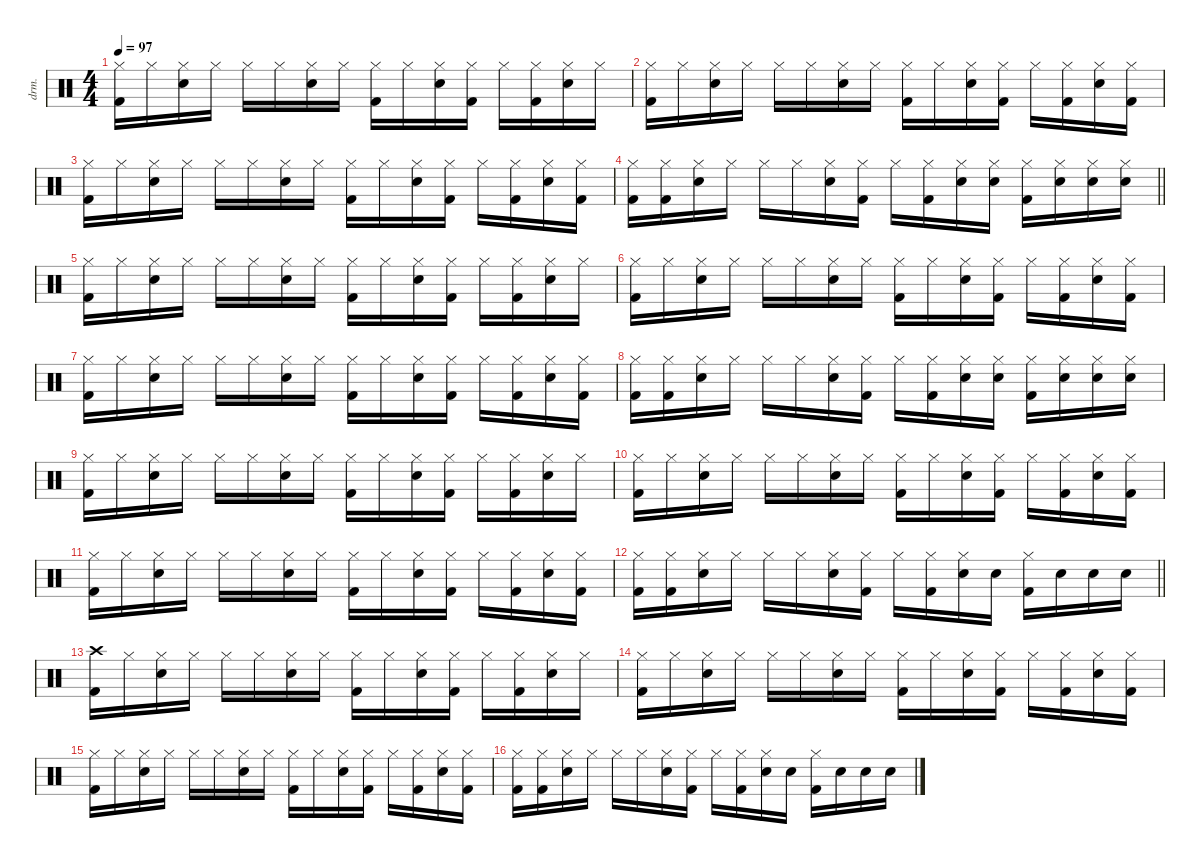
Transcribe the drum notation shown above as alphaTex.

\defaultSystemsLayout 4
\hideDynamics
\bracketExtendMode nobrackets
\track ("Drumkit" "drm.") {instrument percussion}
\staff {score}
\articulation defaults
\ts (4 4)
\tempo 97
\clef neutral
\ks c
("Hi-Hat (closed)" "Kick (hit) 2").16{dy mf beam Down} "Hi-Hat (closed)".16{beam Down} ("Hi-Hat (closed)" "Snare (hit) 2").16{beam Down} "Hi-Hat (closed)".16{beam Down} "Hi-Hat (closed)".16{beam Down} "Hi-Hat (closed)".16{beam Down} ("Hi-Hat (closed)" "Snare (hit) 2").16{beam Down} "Hi-Hat (closed)".16{beam Down} ("Hi-Hat (closed)" "Kick (hit) 2").16{beam Down} "Hi-Hat (closed)".16{beam Down} ("Hi-Hat (closed)" "Snare (hit) 2").16{beam Down} ("Hi-Hat (closed)" "Kick (hit) 2").16{beam Down} "Hi-Hat (closed)".16{beam Down} ("Hi-Hat (closed)" "Kick (hit) 2").16{beam Down} ("Hi-Hat (closed)" "Snare (hit) 2").16{beam Down} "Hi-Hat (closed)".16{beam Down} |
("Hi-Hat (closed)" "Kick (hit) 2").16{beam Down} "Hi-Hat (closed)".16{beam Down} ("Hi-Hat (closed)" "Snare (hit) 2").16{beam Down} "Hi-Hat (closed)".16{beam Down} "Hi-Hat (closed)".16{beam Down} "Hi-Hat (closed)".16{beam Down} ("Hi-Hat (closed)" "Snare (hit) 2").16{beam Down} "Hi-Hat (closed)".16{beam Down} ("Hi-Hat (closed)" "Kick (hit) 2").16{beam Down} "Hi-Hat (closed)".16{beam Down} ("Hi-Hat (closed)" "Snare (hit) 2").16{beam Down} ("Hi-Hat (closed)" "Kick (hit) 2").16{beam Down} "Hi-Hat (closed)".16{beam Down} ("Hi-Hat (closed)" "Kick (hit) 2").16{beam Down} ("Hi-Hat (closed)" "Snare (hit) 2").16{beam Down} ("Hi-Hat (closed)" "Kick (hit) 2").16{beam Down} |
("Hi-Hat (closed)" "Kick (hit) 2").16{beam Down} "Hi-Hat (closed)".16{beam Down} ("Hi-Hat (closed)" "Snare (hit) 2").16{beam Down} "Hi-Hat (closed)".16{beam Down} "Hi-Hat (closed)".16{beam Down} "Hi-Hat (closed)".16{beam Down} ("Hi-Hat (closed)" "Snare (hit) 2").16{beam Down} "Hi-Hat (closed)".16{beam Down} ("Hi-Hat (closed)" "Kick (hit) 2").16{beam Down} "Hi-Hat (closed)".16{beam Down} ("Hi-Hat (closed)" "Snare (hit) 2").16{beam Down} ("Hi-Hat (closed)" "Kick (hit) 2").16{beam Down} "Hi-Hat (closed)".16{beam Down} ("Hi-Hat (closed)" "Kick (hit) 2").16{beam Down} ("Hi-Hat (closed)" "Snare (hit) 2").16{beam Down} ("Hi-Hat (closed)" "Kick (hit) 2").16{beam Down} |
\barLineRight lightlight
("Hi-Hat (closed)" "Kick (hit) 2").16{beam Down} ("Hi-Hat (closed)" "Kick (hit) 2").16{beam Down} ("Hi-Hat (closed)" "Snare (hit) 2").16{beam Down} "Hi-Hat (closed)".16{beam Down} "Hi-Hat (closed)".16{beam Down} "Hi-Hat (closed)".16{beam Down} ("Hi-Hat (closed)" "Snare (hit) 2").16{beam Down} ("Hi-Hat (closed)" "Kick (hit) 2").16{beam Down} "Hi-Hat (closed)".16{beam Down} ("Hi-Hat (closed)" "Kick (hit) 2").16{beam Down} ("Hi-Hat (closed)" "Snare (hit) 2").16{beam Down} ("Hi-Hat (closed)" "Snare (hit) 2").16{beam Down} ("Hi-Hat (closed)" "Kick (hit) 2").16{beam Down} ("Hi-Hat (closed)" "Snare (hit) 2").16{beam Down} ("Hi-Hat (closed)" "Snare (hit) 2").16{beam Down} ("Hi-Hat (closed)" "Snare (hit) 2").16{beam Down} |
("Hi-Hat (closed)" "Kick (hit) 2").16{beam Down} "Hi-Hat (closed)".16{beam Down} ("Hi-Hat (closed)" "Snare (hit) 2").16{beam Down} "Hi-Hat (closed)".16{beam Down} "Hi-Hat (closed)".16{beam Down} "Hi-Hat (closed)".16{beam Down} ("Hi-Hat (closed)" "Snare (hit) 2").16{beam Down} "Hi-Hat (closed)".16{beam Down} ("Hi-Hat (closed)" "Kick (hit) 2").16{beam Down} "Hi-Hat (closed)".16{beam Down} ("Hi-Hat (closed)" "Snare (hit) 2").16{beam Down} ("Hi-Hat (closed)" "Kick (hit) 2").16{beam Down} "Hi-Hat (closed)".16{beam Down} ("Hi-Hat (closed)" "Kick (hit) 2").16{beam Down} ("Hi-Hat (closed)" "Snare (hit) 2").16{beam Down} "Hi-Hat (closed)".16{beam Down} |
("Hi-Hat (closed)" "Kick (hit) 2").16{beam Down} "Hi-Hat (closed)".16{beam Down} ("Hi-Hat (closed)" "Snare (hit) 2").16{beam Down} "Hi-Hat (closed)".16{beam Down} "Hi-Hat (closed)".16{beam Down} "Hi-Hat (closed)".16{beam Down} ("Hi-Hat (closed)" "Snare (hit) 2").16{beam Down} "Hi-Hat (closed)".16{beam Down} ("Hi-Hat (closed)" "Kick (hit) 2").16{beam Down} "Hi-Hat (closed)".16{beam Down} ("Hi-Hat (closed)" "Snare (hit) 2").16{beam Down} ("Hi-Hat (closed)" "Kick (hit) 2").16{beam Down} "Hi-Hat (closed)".16{beam Down} ("Hi-Hat (closed)" "Kick (hit) 2").16{beam Down} ("Hi-Hat (closed)" "Snare (hit) 2").16{beam Down} ("Hi-Hat (closed)" "Kick (hit) 2").16{beam Down} |
("Hi-Hat (closed)" "Kick (hit) 2").16{beam Down} "Hi-Hat (closed)".16{beam Down} ("Hi-Hat (closed)" "Snare (hit) 2").16{beam Down} "Hi-Hat (closed)".16{beam Down} "Hi-Hat (closed)".16{beam Down} "Hi-Hat (closed)".16{beam Down} ("Hi-Hat (closed)" "Snare (hit) 2").16{beam Down} "Hi-Hat (closed)".16{beam Down} ("Hi-Hat (closed)" "Kick (hit) 2").16{beam Down} "Hi-Hat (closed)".16{beam Down} ("Hi-Hat (closed)" "Snare (hit) 2").16{beam Down} ("Hi-Hat (closed)" "Kick (hit) 2").16{beam Down} "Hi-Hat (closed)".16{beam Down} ("Hi-Hat (closed)" "Kick (hit) 2").16{beam Down} ("Hi-Hat (closed)" "Snare (hit) 2").16{beam Down} ("Hi-Hat (closed)" "Kick (hit) 2").16{beam Down} |
("Hi-Hat (closed)" "Kick (hit) 2").16{beam Down} ("Hi-Hat (closed)" "Kick (hit) 2").16{beam Down} ("Hi-Hat (closed)" "Snare (hit) 2").16{beam Down} "Hi-Hat (closed)".16{beam Down} "Hi-Hat (closed)".16{beam Down} "Hi-Hat (closed)".16{beam Down} ("Hi-Hat (closed)" "Snare (hit) 2").16{beam Down} ("Hi-Hat (closed)" "Kick (hit) 2").16{beam Down} "Hi-Hat (closed)".16{beam Down} ("Hi-Hat (closed)" "Kick (hit) 2").16{beam Down} ("Hi-Hat (closed)" "Snare (hit) 2").16{beam Down} ("Hi-Hat (closed)" "Snare (hit) 2").16{beam Down} ("Hi-Hat (closed)" "Kick (hit) 2").16{beam Down} ("Hi-Hat (closed)" "Snare (hit) 2").16{beam Down} ("Hi-Hat (closed)" "Snare (hit) 2").16{beam Down} ("Hi-Hat (closed)" "Snare (hit) 2").16{beam Down} |
("Hi-Hat (closed)" "Kick (hit) 2").16{beam Down} "Hi-Hat (closed)".16{beam Down} ("Hi-Hat (closed)" "Snare (hit) 2").16{beam Down} "Hi-Hat (closed)".16{beam Down} "Hi-Hat (closed)".16{beam Down} "Hi-Hat (closed)".16{beam Down} ("Hi-Hat (closed)" "Snare (hit) 2").16{beam Down} "Hi-Hat (closed)".16{beam Down} ("Hi-Hat (closed)" "Kick (hit) 2").16{beam Down} "Hi-Hat (closed)".16{beam Down} ("Hi-Hat (closed)" "Snare (hit) 2").16{beam Down} ("Hi-Hat (closed)" "Kick (hit) 2").16{beam Down} "Hi-Hat (closed)".16{beam Down} ("Hi-Hat (closed)" "Kick (hit) 2").16{beam Down} ("Hi-Hat (closed)" "Snare (hit) 2").16{beam Down} "Hi-Hat (closed)".16{beam Down} |
("Hi-Hat (closed)" "Kick (hit) 2").16{beam Down} "Hi-Hat (closed)".16{beam Down} ("Hi-Hat (closed)" "Snare (hit) 2").16{beam Down} "Hi-Hat (closed)".16{beam Down} "Hi-Hat (closed)".16{beam Down} "Hi-Hat (closed)".16{beam Down} ("Hi-Hat (closed)" "Snare (hit) 2").16{beam Down} "Hi-Hat (closed)".16{beam Down} ("Hi-Hat (closed)" "Kick (hit) 2").16{beam Down} "Hi-Hat (closed)".16{beam Down} ("Hi-Hat (closed)" "Snare (hit) 2").16{beam Down} ("Hi-Hat (closed)" "Kick (hit) 2").16{beam Down} "Hi-Hat (closed)".16{beam Down} ("Hi-Hat (closed)" "Kick (hit) 2").16{beam Down} ("Hi-Hat (closed)" "Snare (hit) 2").16{beam Down} ("Hi-Hat (closed)" "Kick (hit) 2").16{beam Down} |
("Hi-Hat (closed)" "Kick (hit) 2").16{beam Down} "Hi-Hat (closed)".16{beam Down} ("Hi-Hat (closed)" "Snare (hit) 2").16{beam Down} "Hi-Hat (closed)".16{beam Down} "Hi-Hat (closed)".16{beam Down} "Hi-Hat (closed)".16{beam Down} ("Hi-Hat (closed)" "Snare (hit) 2").16{beam Down} "Hi-Hat (closed)".16{beam Down} ("Hi-Hat (closed)" "Kick (hit) 2").16{beam Down} "Hi-Hat (closed)".16{beam Down} ("Hi-Hat (closed)" "Snare (hit) 2").16{beam Down} ("Hi-Hat (closed)" "Kick (hit) 2").16{beam Down} "Hi-Hat (closed)".16{beam Down} ("Hi-Hat (closed)" "Kick (hit) 2").16{beam Down} ("Hi-Hat (closed)" "Snare (hit) 2").16{beam Down} ("Hi-Hat (closed)" "Kick (hit) 2").16{beam Down} |
\barLineRight lightlight
("Hi-Hat (closed)" "Kick (hit) 2").16{beam Down} ("Hi-Hat (closed)" "Kick (hit) 2").16{beam Down} ("Hi-Hat (closed)" "Snare (hit) 2").16{beam Down} "Hi-Hat (closed)".16{beam Down} "Hi-Hat (closed)".16{beam Down} "Hi-Hat (closed)".16{beam Down} ("Hi-Hat (closed)" "Snare (hit) 2").16{beam Down} ("Hi-Hat (closed)" "Kick (hit) 2").16{beam Down} "Hi-Hat (closed)".16{beam Down} ("Hi-Hat (closed)" "Kick (hit) 2").16{beam Down} ("Hi-Hat (closed)" "Snare (hit) 2").16{beam Down} "Snare (hit) 2".16{beam Down} ("Hi-Hat (closed)" "Kick (hit) 2").16{beam Down} "Snare (hit) 2".16{beam Down} "Snare (hit) 2".16{beam Down} "Snare (hit) 2".16{beam Down} |
("Kick (hit) 2" "Crash high (hit)").16{beam Down} "Hi-Hat (closed)".16{beam Down} ("Hi-Hat (closed)" "Snare (hit) 2").16{beam Down} "Hi-Hat (closed)".16{beam Down} "Hi-Hat (closed)".16{beam Down} "Hi-Hat (closed)".16{beam Down} ("Hi-Hat (closed)" "Snare (hit) 2").16{beam Down} "Hi-Hat (closed)".16{beam Down} ("Hi-Hat (closed)" "Kick (hit) 2").16{beam Down} "Hi-Hat (closed)".16{beam Down} ("Hi-Hat (closed)" "Snare (hit) 2").16{beam Down} ("Hi-Hat (closed)" "Kick (hit) 2").16{beam Down} "Hi-Hat (closed)".16{beam Down} ("Hi-Hat (closed)" "Kick (hit) 2").16{beam Down} ("Hi-Hat (closed)" "Snare (hit) 2").16{beam Down} "Hi-Hat (closed)".16{beam Down} |
("Hi-Hat (closed)" "Kick (hit) 2").16{beam Down} "Hi-Hat (closed)".16{beam Down} ("Hi-Hat (closed)" "Snare (hit) 2").16{beam Down} "Hi-Hat (closed)".16{beam Down} "Hi-Hat (closed)".16{beam Down} "Hi-Hat (closed)".16{beam Down} ("Hi-Hat (closed)" "Snare (hit) 2").16{beam Down} "Hi-Hat (closed)".16{beam Down} ("Hi-Hat (closed)" "Kick (hit) 2").16{beam Down} "Hi-Hat (closed)".16{beam Down} ("Hi-Hat (closed)" "Snare (hit) 2").16{beam Down} ("Hi-Hat (closed)" "Kick (hit) 2").16{beam Down} "Hi-Hat (closed)".16{beam Down} ("Hi-Hat (closed)" "Kick (hit) 2").16{beam Down} ("Hi-Hat (closed)" "Snare (hit) 2").16{beam Down} ("Hi-Hat (closed)" "Kick (hit) 2").16{beam Down} |
("Hi-Hat (closed)" "Kick (hit) 2").16{beam Down} "Hi-Hat (closed)".16{beam Down} ("Hi-Hat (closed)" "Snare (hit) 2").16{beam Down} "Hi-Hat (closed)".16{beam Down} "Hi-Hat (closed)".16{beam Down} "Hi-Hat (closed)".16{beam Down} ("Hi-Hat (closed)" "Snare (hit) 2").16{beam Down} "Hi-Hat (closed)".16{beam Down} ("Hi-Hat (closed)" "Kick (hit) 2").16{beam Down} "Hi-Hat (closed)".16{beam Down} ("Hi-Hat (closed)" "Snare (hit) 2").16{beam Down} ("Hi-Hat (closed)" "Kick (hit) 2").16{beam Down} "Hi-Hat (closed)".16{beam Down} ("Hi-Hat (closed)" "Kick (hit) 2").16{beam Down} ("Hi-Hat (closed)" "Snare (hit) 2").16{beam Down} ("Hi-Hat (closed)" "Kick (hit) 2").16{beam Down} |
("Hi-Hat (closed)" "Kick (hit) 2").16{beam Down} ("Hi-Hat (closed)" "Kick (hit) 2").16{beam Down} ("Hi-Hat (closed)" "Snare (hit) 2").16{beam Down} "Hi-Hat (closed)".16{beam Down} "Hi-Hat (closed)".16{beam Down} "Hi-Hat (closed)".16{beam Down} ("Hi-Hat (closed)" "Snare (hit) 2").16{beam Down} ("Hi-Hat (closed)" "Kick (hit) 2").16{beam Down} "Hi-Hat (closed)".16{beam Down} ("Hi-Hat (closed)" "Kick (hit) 2").16{beam Down} ("Hi-Hat (closed)" "Snare (hit) 2").16{beam Down} "Snare (hit) 2".16{beam Down} ("Hi-Hat (closed)" "Kick (hit) 2").16{beam Down} "Snare (hit) 2".16{beam Down} "Snare (hit) 2".16{beam Down} "Snare (hit) 2".16{beam Down}
